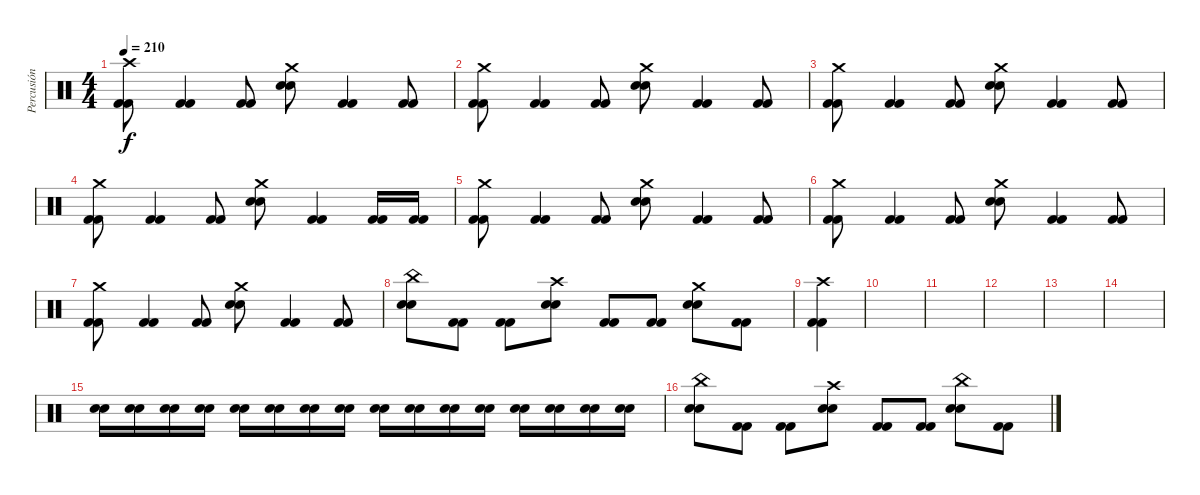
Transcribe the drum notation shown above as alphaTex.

\track ("Percusión" "Percusión") {instrument percussion}
\staff {score}
\articulation defaults
\ts (4 4)
\tempo 210
\clef neutral
\ks c
("Kick (hit) 2" "Kick (hit) 2" "Crash high (hit)").8{dy f} ("Kick (hit) 2" "Kick (hit) 2").4 ("Kick (hit) 2" "Kick (hit) 2").8 ("Electric Snare (hit)" "Electric Snare (hit)" "Crash medium (hit)").8 ("Kick (hit) 2" "Kick (hit) 2").4 ("Kick (hit) 2" "Kick (hit) 2").8 |
("Kick (hit) 2" "Kick (hit) 2" "Crash medium (hit)").8 ("Kick (hit) 2" "Kick (hit) 2").4 ("Kick (hit) 2" "Kick (hit) 2").8 ("Electric Snare (hit)" "Electric Snare (hit)" "Crash medium (hit)").8 ("Kick (hit) 2" "Kick (hit) 2").4 ("Kick (hit) 2" "Kick (hit) 2").8 |
("Kick (hit) 2" "Kick (hit) 2" "Crash medium (hit)").8 ("Kick (hit) 2" "Kick (hit) 2").4 ("Kick (hit) 2" "Kick (hit) 2").8 ("Electric Snare (hit)" "Electric Snare (hit)" "Crash medium (hit)").8 ("Kick (hit) 2" "Kick (hit) 2").4 ("Kick (hit) 2" "Kick (hit) 2").8 |
("Kick (hit) 2" "Kick (hit) 2" "Crash medium (hit)").8 ("Kick (hit) 2" "Kick (hit) 2").4 ("Kick (hit) 2" "Kick (hit) 2").8 ("Electric Snare (hit)" "Electric Snare (hit)" "Crash medium (hit)").8 ("Kick (hit) 2" "Kick (hit) 2").4 ("Kick (hit) 2" "Kick (hit) 2").16 ("Kick (hit) 2" "Kick (hit) 2").16 |
("Kick (hit) 2" "Kick (hit) 2" "Crash medium (hit)").8 ("Kick (hit) 2" "Kick (hit) 2").4 ("Kick (hit) 2" "Kick (hit) 2").8 ("Electric Snare (hit)" "Electric Snare (hit)" "Crash medium (hit)").8 ("Kick (hit) 2" "Kick (hit) 2").4 ("Kick (hit) 2" "Kick (hit) 2").8 |
("Kick (hit) 2" "Kick (hit) 2" "Crash medium (hit)").8 ("Kick (hit) 2" "Kick (hit) 2").4 ("Kick (hit) 2" "Kick (hit) 2").8 ("Electric Snare (hit)" "Electric Snare (hit)" "Crash medium (hit)").8 ("Kick (hit) 2" "Kick (hit) 2").4 ("Kick (hit) 2" "Kick (hit) 2").8 |
("Kick (hit) 2" "Kick (hit) 2" "Crash medium (hit)").8 ("Kick (hit) 2" "Kick (hit) 2").4 ("Kick (hit) 2" "Kick (hit) 2").8 ("Electric Snare (hit)" "Electric Snare (hit)" "Crash medium (hit)").8 ("Kick (hit) 2" "Kick (hit) 2").4 ("Kick (hit) 2" "Kick (hit) 2").8 |
("Electric Snare (hit)" "Electric Snare (hit)" "China (hit)").8 ("Kick (hit) 2" "Kick (hit) 2").8 ("Kick (hit) 2" "Kick (hit) 2").8 ("Electric Snare (hit)" "Electric Snare (hit)" "Crash high (hit)").8 ("Kick (hit) 2" "Kick (hit) 2").8 ("Kick (hit) 2" "Kick (hit) 2").8 ("Electric Snare (hit)" "Electric Snare (hit)" "Crash medium (hit)").8 ("Kick (hit) 2" "Kick (hit) 2").8 |
("Kick (hit) 2" "Kick (hit) 2" "Crash high (hit)").4 |
|
|
|
|
|
("Electric Snare (hit)" "Electric Snare (hit)").16 ("Electric Snare (hit)" "Electric Snare (hit)").16 ("Electric Snare (hit)" "Electric Snare (hit)").16 ("Electric Snare (hit)" "Electric Snare (hit)").16 ("Electric Snare (hit)" "Electric Snare (hit)").16 ("Electric Snare (hit)" "Electric Snare (hit)").16 ("Electric Snare (hit)" "Electric Snare (hit)").16 ("Electric Snare (hit)" "Electric Snare (hit)").16 ("Electric Snare (hit)" "Electric Snare (hit)").16 ("Electric Snare (hit)" "Electric Snare (hit)").16 ("Electric Snare (hit)" "Electric Snare (hit)").16 ("Electric Snare (hit)" "Electric Snare (hit)").16 ("Electric Snare (hit)" "Electric Snare (hit)").16 ("Electric Snare (hit)" "Electric Snare (hit)").16 ("Electric Snare (hit)" "Electric Snare (hit)").16 ("Electric Snare (hit)" "Electric Snare (hit)").16 |
("Electric Snare (hit)" "Electric Snare (hit)" "China (hit)").8 ("Kick (hit) 2" "Kick (hit) 2").8 ("Kick (hit) 2" "Kick (hit) 2").8 ("Electric Snare (hit)" "Electric Snare (hit)" "Crash high (hit)").8 ("Kick (hit) 2" "Kick (hit) 2").8 ("Kick (hit) 2" "Kick (hit) 2").8 ("Electric Snare (hit)" "Electric Snare (hit)" "China (hit)").8 ("Kick (hit) 2" "Kick (hit) 2").8
